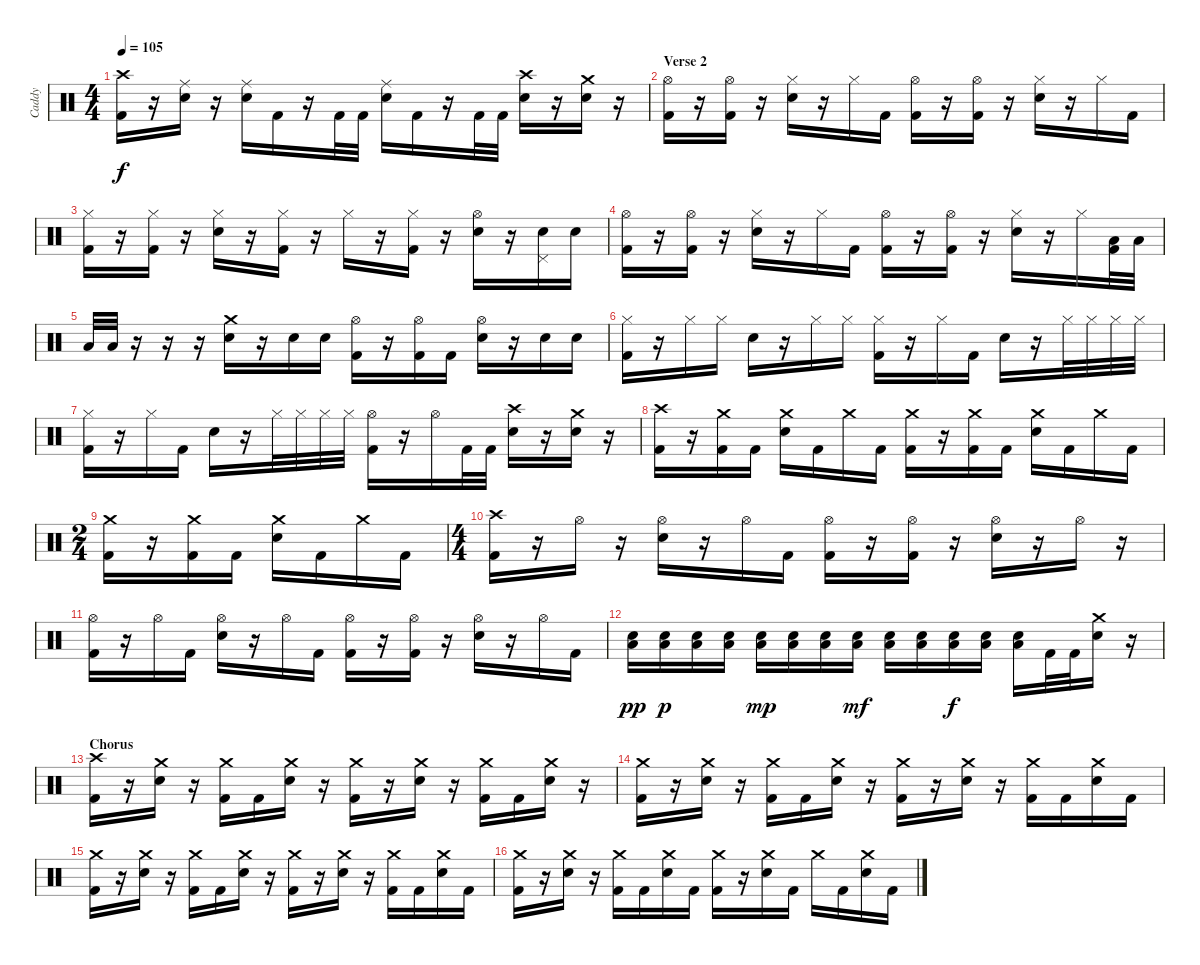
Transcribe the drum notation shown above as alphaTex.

\track ("Caddy" "Caddy") {instrument percussion}
\staff {score}
\articulation defaults
\ts (4 4)
\tempo 105
\clef neutral
\ks c
("Crash high (hit)" "Kick (hit) 2").16{dy f} r.16 ("Ride (middle)" "Electric Snare (hit)").16 r.16 ("Ride (middle)" "Electric Snare (hit)").16 "Kick (hit) 2".16 r.16 "Kick (hit) 2".32 "Kick (hit) 2".32 ("Ride (middle)" "Electric Snare (hit)").16 "Kick (hit) 2".16 r.16 "Kick (hit) 2".32 "Kick (hit) 2".32 ("Crash high (hit)" "Electric Snare (hit)").16 r.16 ("Crash medium (hit)" "Electric Snare (hit)").16 r.16 |
\section ("" "Verse 2")
("Hi-Hat (open)" "Kick (hit) 2").16 r.16 ("Hi-Hat (open)" "Kick (hit) 2").16 r.16 ("Hi-Hat (closed)" "Electric Snare (hit)").16 r.16 "Hi-Hat (closed)".16 "Kick (hit) 2".16 ("Hi-Hat (open)" "Kick (hit) 2").16 r.16 ("Hi-Hat (open)" "Kick (hit) 2").16 r.16 ("Hi-Hat (closed)" "Electric Snare (hit)").16 r.16 "Hi-Hat (closed)".16 "Kick (hit) 2".16 |
("Hi-Hat (closed)" "Kick (hit) 2").16 r.16 ("Hi-Hat (closed)" "Kick (hit) 2").16 r.16 ("Hi-Hat (closed)" "Electric Snare (hit)").16 r.16 ("Hi-Hat (closed)" "Kick (hit) 2").16 r.16 "Hi-Hat (closed)".16 r.16 ("Hi-Hat (closed)" "Kick (hit) 2").16 r.16 ("Hi-Hat (open)" "Electric Snare (hit)").16 r.16 ("Pedal Hi-Hat (hit)" "Electric Snare (hit)").16 "Electric Snare (hit)".16 |
("Hi-Hat (open)" "Kick (hit) 2").16 r.16 ("Hi-Hat (open)" "Kick (hit) 2").16 r.16 ("Hi-Hat (closed)" "Electric Snare (hit)").16 r.16 "Hi-Hat (closed)".16 "Kick (hit) 2".16 ("Hi-Hat (open)" "Kick (hit) 2").16 r.16 ("Hi-Hat (open)" "Kick (hit) 2").16 r.16 ("Hi-Hat (closed)" "Electric Snare (hit)").16 r.16 "Hi-Hat (closed)".16 ("Low Tom (hit)" "Kick (hit) 2").32 "Low Tom (hit)".32 |
"Low Floor Tom (hit)".32 "Low Floor Tom (hit)".32 r.16 r.16 r.16 ("Crash medium (hit)" "Electric Snare (hit)").16 r.16 "Electric Snare (hit)".16 "Electric Snare (hit)".16 ("Hi-Hat (open)" "Kick (hit) 2").16 r.16 ("Hi-Hat (open)" "Kick (hit) 2").16 "Kick (hit) 2".16 ("Hi-Hat (open)" "Electric Snare (hit)").16 r.16 "Electric Snare (hit)".16 "Electric Snare (hit)".16 |
("Hi-Hat (closed)" "Kick (hit) 2").16 r.16 "Hi-Hat (closed)".16 "Hi-Hat (closed)".16 "Electric Snare (hit)".16 r.16 "Hi-Hat (closed)".16 "Hi-Hat (closed)".16 ("Hi-Hat (closed)" "Kick (hit) 2").16 r.16 "Hi-Hat (closed)".16 "Kick (hit) 2".16 "Electric Snare (hit)".16 r.16 "Hi-Hat (closed)".32 "Hi-Hat (closed)".32 "Hi-Hat (closed)".32 "Hi-Hat (closed)".32 |
("Hi-Hat (closed)" "Kick (hit) 2").16 r.16 "Hi-Hat (closed)".16 "Kick (hit) 2".16 "Electric Snare (hit)".16 r.16 "Hi-Hat (closed)".32 "Hi-Hat (closed)".32 "Hi-Hat (closed)".32 "Hi-Hat (closed)".32 ("Hi-Hat (open)" "Kick (hit) 2").16 r.16 "Hi-Hat (open)".16 "Kick (hit) 2".32 "Kick (hit) 2".32 ("Crash high (hit)" "Electric Snare (hit)").16 r.16 ("Crash medium (hit)" "Electric Snare (hit)").16 r.16 |
("Crash high (hit)" "Kick (hit) 2").16 r.16 ("Crash medium (hit)" "Kick (hit) 2").16 "Kick (hit) 2".16 ("Crash medium (hit)" "Electric Snare (hit)").16 "Kick (hit) 2".16 "Crash medium (hit)".16 "Kick (hit) 2".16 ("Crash medium (hit)" "Kick (hit) 2").16 r.16 ("Crash medium (hit)" "Kick (hit) 2").16 "Kick (hit) 2".16 ("Crash medium (hit)" "Electric Snare (hit)").16 "Kick (hit) 2".16 "Crash medium (hit)".16 "Kick (hit) 2".16 |
\ts (2 4)
("Crash medium (hit)" "Kick (hit) 2").16 r.16 ("Crash medium (hit)" "Kick (hit) 2").16 "Kick (hit) 2".16 ("Crash medium (hit)" "Electric Snare (hit)").16 "Kick (hit) 2".16 "Crash medium (hit)".16 "Kick (hit) 2".16 |
\ts (4 4)
("Crash high (hit)" "Kick (hit) 2").16 r.16 "Hi-Hat (open)".16 r.16 ("Hi-Hat (open)" "Electric Snare (hit)").16 r.16 "Hi-Hat (open)".16 "Kick (hit) 2".16 ("Hi-Hat (open)" "Kick (hit) 2").16 r.16 ("Hi-Hat (open)" "Kick (hit) 2").16 r.16 ("Hi-Hat (open)" "Electric Snare (hit)").16 r.16 "Hi-Hat (open)".16 r.16 |
("Hi-Hat (open)" "Kick (hit) 2").16 r.16 "Hi-Hat (open)".16 "Kick (hit) 2".16 ("Hi-Hat (open)" "Electric Snare (hit)").16 r.16 "Hi-Hat (open)".16 "Kick (hit) 2".16 ("Hi-Hat (open)" "Kick (hit) 2").16 r.16 ("Hi-Hat (open)" "Kick (hit) 2").16 r.16 ("Hi-Hat (open)" "Electric Snare (hit)").16 r.16 "Hi-Hat (open)".16 "Kick (hit) 2".16 |
("Electric Snare (hit)" "Low Floor Tom (hit)").16{dy pp} ("Electric Snare (hit)" "Low Floor Tom (hit)").16{dy p} ("Electric Snare (hit)" "Low Floor Tom (hit)").16 ("Electric Snare (hit)" "Low Floor Tom (hit)").16 ("Electric Snare (hit)" "Low Floor Tom (hit)").16{dy mp} ("Electric Snare (hit)" "Low Floor Tom (hit)").16 ("Electric Snare (hit)" "Low Floor Tom (hit)").16 ("Electric Snare (hit)" "Low Floor Tom (hit)").16{dy mf} ("Electric Snare (hit)" "Low Floor Tom (hit)").16 ("Electric Snare (hit)" "Low Floor Tom (hit)").16 ("Electric Snare (hit)" "Low Floor Tom (hit)").16{dy f} ("Electric Snare (hit)" "Low Floor Tom (hit)").16 ("Electric Snare (hit)" "Low Floor Tom (hit)").16 "Kick (hit) 2".32 "Kick (hit) 2".32 ("Crash medium (hit)" "Electric Snare (hit)").16 r.16 |
\section ("" "Chorus")
("Crash high (hit)" "Kick (hit) 2").16 r.16 ("Crash medium (hit)" "Electric Snare (hit)").16 r.16 ("Crash medium (hit)" "Kick (hit) 2").16 "Kick (hit) 2".16 ("Crash medium (hit)" "Electric Snare (hit)").16 r.16 ("Crash medium (hit)" "Kick (hit) 2").16 r.16 ("Crash medium (hit)" "Electric Snare (hit)").16 r.16 ("Crash medium (hit)" "Kick (hit) 2").16 "Kick (hit) 2".16 ("Crash medium (hit)" "Electric Snare (hit)").16 r.16 |
("Crash medium (hit)" "Kick (hit) 2").16 r.16 ("Crash medium (hit)" "Electric Snare (hit)").16 r.16 ("Crash medium (hit)" "Kick (hit) 2").16 "Kick (hit) 2".16 ("Crash medium (hit)" "Electric Snare (hit)").16 r.16 ("Crash medium (hit)" "Kick (hit) 2").16 r.16 ("Crash medium (hit)" "Electric Snare (hit)").16 r.16 ("Crash medium (hit)" "Kick (hit) 2").16 "Kick (hit) 2".16 ("Crash medium (hit)" "Electric Snare (hit)").16 "Kick (hit) 2".16 |
("Crash medium (hit)" "Kick (hit) 2").16 r.16 ("Crash medium (hit)" "Electric Snare (hit)").16 r.16 ("Crash medium (hit)" "Kick (hit) 2").16 "Kick (hit) 2".16 ("Crash medium (hit)" "Electric Snare (hit)").16 r.16 ("Crash medium (hit)" "Kick (hit) 2").16 r.16 ("Crash medium (hit)" "Electric Snare (hit)").16 r.16 ("Crash medium (hit)" "Kick (hit) 2").16 "Kick (hit) 2".16 ("Crash medium (hit)" "Electric Snare (hit)").16 "Kick (hit) 2".16 |
("Crash medium (hit)" "Kick (hit) 2").16 r.16 ("Crash medium (hit)" "Electric Snare (hit)").16 r.16 ("Crash medium (hit)" "Kick (hit) 2").16 "Kick (hit) 2".16 ("Crash medium (hit)" "Electric Snare (hit)").16 "Kick (hit) 2".16 ("Crash medium (hit)" "Kick (hit) 2").16 r.16 ("Crash medium (hit)" "Electric Snare (hit)").16 "Kick (hit) 2".16 "Crash medium (hit)".16 "Kick (hit) 2".16 ("Crash medium (hit)" "Electric Snare (hit)").16 "Kick (hit) 2".16
